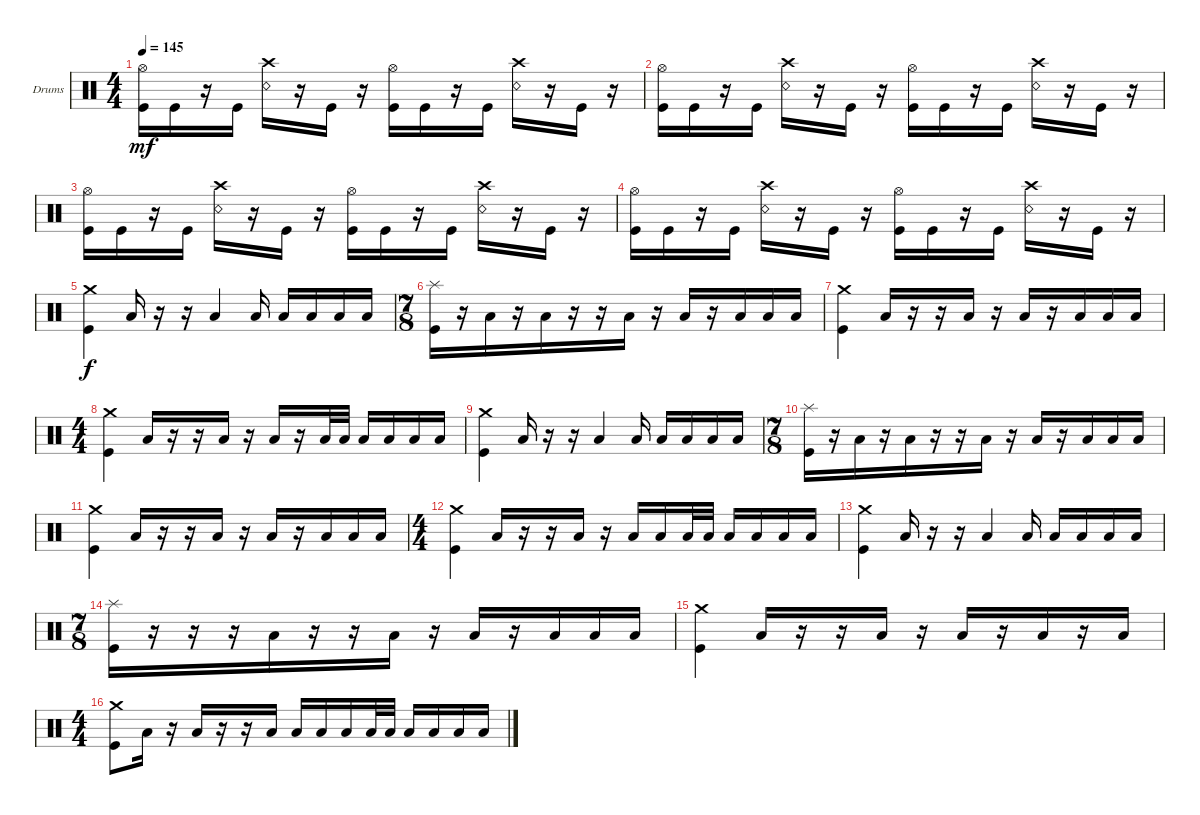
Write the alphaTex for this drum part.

\defaultSystemsLayout 4
\bracketExtendMode groupsimilarinstruments
\firstSystemTrackNameOrientation horizontal
\otherSystemsTrackNameOrientation horizontal
\track ("Drumkit" "Drums") {instrument percussion}
\staff {score}
\articulation defaults
\ts (4 4)
\tempo 145
\clef neutral
\ks c
("Kick (hit)" "Hi-Hat (open)").16{dy mf} "Kick (hit)".16 r.16 "Kick (hit)".16 ("Snare (rim shot)" "Crash high (hit)").16 r.16 "Kick (hit)".16 r.16 ("Kick (hit)" "Hi-Hat (open)").16 "Kick (hit)".16 r.16 "Kick (hit)".16 ("Snare (rim shot)" "Crash high (hit)").16 r.16 "Kick (hit)".16 r.16 |
("Kick (hit)" "Hi-Hat (open)").16 "Kick (hit)".16 r.16 "Kick (hit)".16 ("Snare (rim shot)" "Crash high (hit)").16 r.16 "Kick (hit)".16 r.16 ("Kick (hit)" "Hi-Hat (open)").16 "Kick (hit)".16 r.16 "Kick (hit)".16 ("Snare (rim shot)" "Crash high (hit)").16 r.16 "Kick (hit)".16 r.16 |
("Kick (hit)" "Hi-Hat (open)").16 "Kick (hit)".16 r.16 "Kick (hit)".16 ("Snare (rim shot)" "Crash high (hit)").16 r.16 "Kick (hit)".16 r.16 ("Kick (hit)" "Hi-Hat (open)").16 "Kick (hit)".16 r.16 "Kick (hit)".16 ("Snare (rim shot)" "Crash high (hit)").16 r.16 "Kick (hit)".16 r.16 |
("Kick (hit)" "Hi-Hat (open)").16 "Kick (hit)".16 r.16 "Kick (hit)".16 ("Snare (rim shot)" "Crash high (hit)").16 r.16 "Kick (hit)".16 r.16 ("Kick (hit)" "Hi-Hat (open)").16 "Kick (hit)".16 r.16 "Kick (hit)".16 ("Snare (rim shot)" "Crash high (hit)").16 r.16 "Kick (hit)".16 r.16 |
("Crash medium (hit)" "Kick (hit)").4{dy f} "Low Tom (hit)".16 r.16 r.16 "Low Tom (hit)".4 "Low Tom (hit)".16 "Low Tom (hit)".16 "Low Tom (hit)".16 "Low Tom (hit)".16 "Low Tom (hit)".16 |
\ts (7 8)
("Splash (hit)" "Kick (hit)").16 r.16 "Low Tom (hit)".16 r.16 "Low Tom (hit)".16 r.16 r.16 "Low Tom (hit)".16 r.16 "Low Tom (hit)".16 r.16 "Low Tom (hit)".16 "Low Tom (hit)".16 "Low Tom (hit)".16 |
("Crash medium (hit)" "Kick (hit)").4 "Low Tom (hit)".16 r.16 r.16 "Low Tom (hit)".16 r.16 "Low Tom (hit)".16 r.16 "Low Tom (hit)".16 "Low Tom (hit)".16 "Low Tom (hit)".16 |
\ts (4 4)
("Crash medium (hit)" "Kick (hit)").4 "Low Tom (hit)".16 r.16 r.16 "Low Tom (hit)".16 r.16 "Low Tom (hit)".16 r.16 "Low Tom (hit)".32 "Low Tom (hit)".32 "Low Tom (hit)".16 "Low Tom (hit)".16 "Low Tom (hit)".16 "Low Tom (hit)".16 |
("Crash medium (hit)" "Kick (hit)").4 "Low Tom (hit)".16 r.16 r.16 "Low Tom (hit)".4 "Low Tom (hit)".16 "Low Tom (hit)".16 "Low Tom (hit)".16 "Low Tom (hit)".16 "Low Tom (hit)".16 |
\ts (7 8)
("Splash (hit)" "Kick (hit)").16 r.16 "Low Tom (hit)".16 r.16 "Low Tom (hit)".16 r.16 r.16 "Low Tom (hit)".16 r.16 "Low Tom (hit)".16 r.16 "Low Tom (hit)".16 "Low Tom (hit)".16 "Low Tom (hit)".16 |
("Crash medium (hit)" "Kick (hit)").4 "Low Tom (hit)".16 r.16 r.16 "Low Tom (hit)".16 r.16 "Low Tom (hit)".16 r.16 "Low Tom (hit)".16 "Low Tom (hit)".16 "Low Tom (hit)".16 |
\ts (4 4)
("Crash medium (hit)" "Kick (hit)").4 "Low Tom (hit)".16 r.16 r.16 "Low Tom (hit)".16 r.16 "Low Tom (hit)".16 "Low Tom (hit)".16 "Low Tom (hit)".32 "Low Tom (hit)".32 "Low Tom (hit)".16 "Low Tom (hit)".16 "Low Tom (hit)".16 "Low Tom (hit)".16 |
("Crash medium (hit)" "Kick (hit)").4 "Low Tom (hit)".16 r.16 r.16 "Low Tom (hit)".4 "Low Tom (hit)".16 "Low Tom (hit)".16 "Low Tom (hit)".16 "Low Tom (hit)".16 "Low Tom (hit)".16 |
\ts (7 8)
("Splash (hit)" "Kick (hit)").16 r.16 r.16 r.16 "Low Tom (hit)".16 r.16 r.16 "Low Tom (hit)".16 r.16 "Low Tom (hit)".16 r.16 "Low Tom (hit)".16 "Low Tom (hit)".16 "Low Tom (hit)".16 |
("Crash medium (hit)" "Kick (hit)").4 "Low Tom (hit)".16 r.16 r.16 "Low Tom (hit)".16 r.16 "Low Tom (hit)".16 r.16 "Low Tom (hit)".16 r.16 "Low Tom (hit)".16 |
\ts (4 4)
("Crash medium (hit)" "Kick (hit)").8 "Low Tom (hit)".16 r.16 "Low Tom (hit)".16 r.16 r.16 "Low Tom (hit)".16 "Low Tom (hit)".16 "Low Tom (hit)".16 "Low Tom (hit)".16 "Low Tom (hit)".32 "Low Tom (hit)".32 "Low Tom (hit)".16 "Low Tom (hit)".16 "Low Tom (hit)".16 "Low Tom (hit)".16
